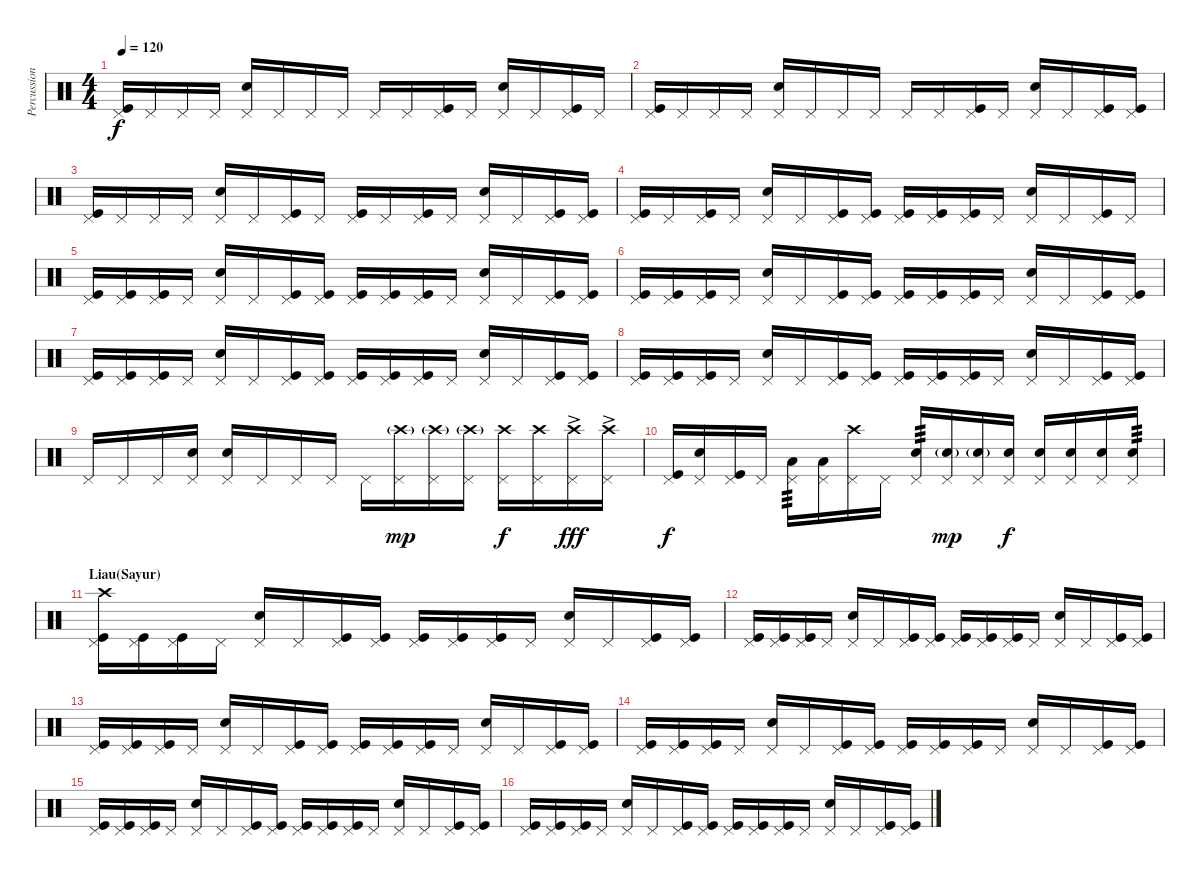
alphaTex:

\track ("Percussion" "Percussion") {instrument percussion}
\staff {score}
\articulation defaults
\ts (4 4)
\tempo 120
\clef neutral
\ks c
("Kick (hit)" "Pedal Hi-Hat (hit)").16{dy f} "Pedal Hi-Hat (hit)".16 "Pedal Hi-Hat (hit)".16 "Pedal Hi-Hat (hit)".16 ("Snare (hit) 2" "Pedal Hi-Hat (hit)").16 "Pedal Hi-Hat (hit)".16 "Pedal Hi-Hat (hit)".16 "Pedal Hi-Hat (hit)".16 "Pedal Hi-Hat (hit)".16 "Pedal Hi-Hat (hit)".16 ("Kick (hit)" "Pedal Hi-Hat (hit)").16 "Pedal Hi-Hat (hit)".16 ("Snare (hit) 2" "Pedal Hi-Hat (hit)").16 "Pedal Hi-Hat (hit)".16 ("Kick (hit)" "Pedal Hi-Hat (hit)").16 "Pedal Hi-Hat (hit)".16 |
("Kick (hit)" "Pedal Hi-Hat (hit)").16 "Pedal Hi-Hat (hit)".16 "Pedal Hi-Hat (hit)".16 "Pedal Hi-Hat (hit)".16 ("Snare (hit) 2" "Pedal Hi-Hat (hit)").16 "Pedal Hi-Hat (hit)".16 "Pedal Hi-Hat (hit)".16 "Pedal Hi-Hat (hit)".16 "Pedal Hi-Hat (hit)".16 "Pedal Hi-Hat (hit)".16 ("Kick (hit)" "Pedal Hi-Hat (hit)").16 "Pedal Hi-Hat (hit)".16 ("Snare (hit) 2" "Pedal Hi-Hat (hit)").16 "Pedal Hi-Hat (hit)".16 ("Kick (hit)" "Pedal Hi-Hat (hit)").16 ("Kick (hit)" "Pedal Hi-Hat (hit)").16 |
("Kick (hit)" "Pedal Hi-Hat (hit)").16 "Pedal Hi-Hat (hit)".16 "Pedal Hi-Hat (hit)".16 "Pedal Hi-Hat (hit)".16 ("Snare (hit) 2" "Pedal Hi-Hat (hit)").16 "Pedal Hi-Hat (hit)".16 ("Kick (hit)" "Pedal Hi-Hat (hit)").16 "Pedal Hi-Hat (hit)".16 ("Kick (hit)" "Pedal Hi-Hat (hit)").16 "Pedal Hi-Hat (hit)".16 ("Kick (hit)" "Pedal Hi-Hat (hit)").16 "Pedal Hi-Hat (hit)".16 ("Snare (hit) 2" "Pedal Hi-Hat (hit)").16 "Pedal Hi-Hat (hit)".16 ("Kick (hit)" "Pedal Hi-Hat (hit)").16 ("Kick (hit)" "Pedal Hi-Hat (hit)").16 |
("Kick (hit)" "Pedal Hi-Hat (hit)").16 "Pedal Hi-Hat (hit)".16 ("Kick (hit)" "Pedal Hi-Hat (hit)").16 "Pedal Hi-Hat (hit)".16 ("Snare (hit) 2" "Pedal Hi-Hat (hit)").16 "Pedal Hi-Hat (hit)".16 ("Kick (hit)" "Pedal Hi-Hat (hit)").16 ("Kick (hit)" "Pedal Hi-Hat (hit)").16 ("Kick (hit)" "Pedal Hi-Hat (hit)").16 ("Kick (hit)" "Pedal Hi-Hat (hit)").16 ("Kick (hit)" "Pedal Hi-Hat (hit)").16 "Pedal Hi-Hat (hit)".16 ("Snare (hit) 2" "Pedal Hi-Hat (hit)").16 "Pedal Hi-Hat (hit)".16 ("Kick (hit)" "Pedal Hi-Hat (hit)").16 "Pedal Hi-Hat (hit)".16 |
("Kick (hit)" "Pedal Hi-Hat (hit)").16 ("Kick (hit)" "Pedal Hi-Hat (hit)").16 ("Kick (hit)" "Pedal Hi-Hat (hit)").16 "Pedal Hi-Hat (hit)".16 ("Snare (hit) 2" "Pedal Hi-Hat (hit)").16 "Pedal Hi-Hat (hit)".16 ("Kick (hit)" "Pedal Hi-Hat (hit)").16 ("Kick (hit)" "Pedal Hi-Hat (hit)").16 ("Kick (hit)" "Pedal Hi-Hat (hit)").16 ("Kick (hit)" "Pedal Hi-Hat (hit)").16 ("Kick (hit)" "Pedal Hi-Hat (hit)").16 "Pedal Hi-Hat (hit)".16 ("Snare (hit) 2" "Pedal Hi-Hat (hit)").16 "Pedal Hi-Hat (hit)".16 ("Kick (hit)" "Pedal Hi-Hat (hit)").16 ("Kick (hit)" "Pedal Hi-Hat (hit)").16 |
("Kick (hit)" "Pedal Hi-Hat (hit)").16 ("Kick (hit)" "Pedal Hi-Hat (hit)").16 ("Kick (hit)" "Pedal Hi-Hat (hit)").16 "Pedal Hi-Hat (hit)".16 ("Snare (hit) 2" "Pedal Hi-Hat (hit)").16 "Pedal Hi-Hat (hit)".16 ("Kick (hit)" "Pedal Hi-Hat (hit)").16 ("Kick (hit)" "Pedal Hi-Hat (hit)").16 ("Kick (hit)" "Pedal Hi-Hat (hit)").16 ("Kick (hit)" "Pedal Hi-Hat (hit)").16 ("Kick (hit)" "Pedal Hi-Hat (hit)").16 "Pedal Hi-Hat (hit)".16 ("Snare (hit) 2" "Pedal Hi-Hat (hit)").16 "Pedal Hi-Hat (hit)".16 ("Kick (hit)" "Pedal Hi-Hat (hit)").16 ("Kick (hit)" "Pedal Hi-Hat (hit)").16 |
("Kick (hit)" "Pedal Hi-Hat (hit)").16 ("Kick (hit)" "Pedal Hi-Hat (hit)").16 ("Kick (hit)" "Pedal Hi-Hat (hit)").16 "Pedal Hi-Hat (hit)".16 ("Snare (hit) 2" "Pedal Hi-Hat (hit)").16 "Pedal Hi-Hat (hit)".16 ("Kick (hit)" "Pedal Hi-Hat (hit)").16 ("Kick (hit)" "Pedal Hi-Hat (hit)").16 ("Kick (hit)" "Pedal Hi-Hat (hit)").16 ("Kick (hit)" "Pedal Hi-Hat (hit)").16 ("Kick (hit)" "Pedal Hi-Hat (hit)").16 "Pedal Hi-Hat (hit)".16 ("Snare (hit) 2" "Pedal Hi-Hat (hit)").16 "Pedal Hi-Hat (hit)".16 ("Kick (hit)" "Pedal Hi-Hat (hit)").16 ("Kick (hit)" "Pedal Hi-Hat (hit)").16 |
("Kick (hit)" "Pedal Hi-Hat (hit)").16 ("Kick (hit)" "Pedal Hi-Hat (hit)").16 ("Kick (hit)" "Pedal Hi-Hat (hit)").16 "Pedal Hi-Hat (hit)".16 ("Snare (hit) 2" "Pedal Hi-Hat (hit)").16 "Pedal Hi-Hat (hit)".16 ("Kick (hit)" "Pedal Hi-Hat (hit)").16 ("Kick (hit)" "Pedal Hi-Hat (hit)").16 ("Kick (hit)" "Pedal Hi-Hat (hit)").16 ("Kick (hit)" "Pedal Hi-Hat (hit)").16 ("Kick (hit)" "Pedal Hi-Hat (hit)").16 "Pedal Hi-Hat (hit)".16 ("Snare (hit) 2" "Pedal Hi-Hat (hit)").16 "Pedal Hi-Hat (hit)".16 ("Kick (hit)" "Pedal Hi-Hat (hit)").16 ("Kick (hit)" "Pedal Hi-Hat (hit)").16 |
"Pedal Hi-Hat (hit)".16 "Pedal Hi-Hat (hit)".16 "Pedal Hi-Hat (hit)".16 ("Snare (hit) 2" "Pedal Hi-Hat (hit)").16 ("Snare (hit) 2" "Pedal Hi-Hat (hit)").16 "Pedal Hi-Hat (hit)".16 "Pedal Hi-Hat (hit)".16 "Pedal Hi-Hat (hit)".16 "Pedal Hi-Hat (hit)".16 ("Crash high (hit)"{g} "Pedal Hi-Hat (hit)").16{dy mp} ("Crash high (hit)"{g} "Pedal Hi-Hat (hit)").16 ("Crash high (hit)"{g} "Pedal Hi-Hat (hit)").16 ("Crash high (hit)" "Pedal Hi-Hat (hit)").16{dy f} ("Crash high (hit)" "Pedal Hi-Hat (hit)").16 ("Crash high (hit)"{ac} "Pedal Hi-Hat (hit)").16{dy fff} ("Crash high (hit)"{ac} "Pedal Hi-Hat (hit)").16 |
("Kick (hit)" "Pedal Hi-Hat (hit)").16{dy f} ("Snare (hit) 2" "Pedal Hi-Hat (hit)").16 ("Kick (hit)" "Pedal Hi-Hat (hit)").16 "Pedal Hi-Hat (hit)".16 ("Low Floor Tom (hit)" "Pedal Hi-Hat (hit)").16{tp 3} ("Low Tom (hit)" "Pedal Hi-Hat (hit)").16 ("Crash high (hit)" "Pedal Hi-Hat (hit)").16 "Pedal Hi-Hat (hit)".16 ("Snare (hit) 2" "Pedal Hi-Hat (hit)").16{tp 3} ("Snare (hit) 2"{g} "Pedal Hi-Hat (hit)").16{dy mp} ("Snare (hit) 2"{g} "Pedal Hi-Hat (hit)").16 ("Snare (hit) 2" "Pedal Hi-Hat (hit)").16{dy f} ("Snare (hit) 2" "Pedal Hi-Hat (hit)").16 ("Snare (hit) 2" "Pedal Hi-Hat (hit)").16 ("Snare (hit) 2" "Pedal Hi-Hat (hit)").16 ("Snare (hit) 2" "Pedal Hi-Hat (hit)").16{tp 3} |
\section ("" "Liau(Sayur)")
("Kick (hit)" "Pedal Hi-Hat (hit)" "Crash high (hit)").16 ("Kick (hit)" "Pedal Hi-Hat (hit)").16 ("Kick (hit)" "Pedal Hi-Hat (hit)").16 "Pedal Hi-Hat (hit)".16 ("Snare (hit) 2" "Pedal Hi-Hat (hit)").16 "Pedal Hi-Hat (hit)".16 ("Kick (hit)" "Pedal Hi-Hat (hit)").16 ("Kick (hit)" "Pedal Hi-Hat (hit)").16 ("Kick (hit)" "Pedal Hi-Hat (hit)").16 ("Kick (hit)" "Pedal Hi-Hat (hit)").16 ("Kick (hit)" "Pedal Hi-Hat (hit)").16 "Pedal Hi-Hat (hit)".16 ("Snare (hit) 2" "Pedal Hi-Hat (hit)").16 "Pedal Hi-Hat (hit)".16 ("Kick (hit)" "Pedal Hi-Hat (hit)").16 ("Kick (hit)" "Pedal Hi-Hat (hit)").16 |
("Kick (hit)" "Pedal Hi-Hat (hit)").16 ("Kick (hit)" "Pedal Hi-Hat (hit)").16 ("Kick (hit)" "Pedal Hi-Hat (hit)").16 "Pedal Hi-Hat (hit)".16 ("Snare (hit) 2" "Pedal Hi-Hat (hit)").16 "Pedal Hi-Hat (hit)".16 ("Kick (hit)" "Pedal Hi-Hat (hit)").16 ("Kick (hit)" "Pedal Hi-Hat (hit)").16 ("Kick (hit)" "Pedal Hi-Hat (hit)").16 ("Kick (hit)" "Pedal Hi-Hat (hit)").16 ("Kick (hit)" "Pedal Hi-Hat (hit)").16 "Pedal Hi-Hat (hit)".16 ("Snare (hit) 2" "Pedal Hi-Hat (hit)").16 "Pedal Hi-Hat (hit)".16 ("Kick (hit)" "Pedal Hi-Hat (hit)").16 ("Kick (hit)" "Pedal Hi-Hat (hit)").16 |
("Kick (hit)" "Pedal Hi-Hat (hit)").16 ("Kick (hit)" "Pedal Hi-Hat (hit)").16 ("Kick (hit)" "Pedal Hi-Hat (hit)").16 "Pedal Hi-Hat (hit)".16 ("Snare (hit) 2" "Pedal Hi-Hat (hit)").16 "Pedal Hi-Hat (hit)".16 ("Kick (hit)" "Pedal Hi-Hat (hit)").16 ("Kick (hit)" "Pedal Hi-Hat (hit)").16 ("Kick (hit)" "Pedal Hi-Hat (hit)").16 ("Kick (hit)" "Pedal Hi-Hat (hit)").16 ("Kick (hit)" "Pedal Hi-Hat (hit)").16 "Pedal Hi-Hat (hit)".16 ("Snare (hit) 2" "Pedal Hi-Hat (hit)").16 "Pedal Hi-Hat (hit)".16 ("Kick (hit)" "Pedal Hi-Hat (hit)").16 ("Kick (hit)" "Pedal Hi-Hat (hit)").16 |
("Kick (hit)" "Pedal Hi-Hat (hit)").16 ("Kick (hit)" "Pedal Hi-Hat (hit)").16 ("Kick (hit)" "Pedal Hi-Hat (hit)").16 "Pedal Hi-Hat (hit)".16 ("Snare (hit) 2" "Pedal Hi-Hat (hit)").16 "Pedal Hi-Hat (hit)".16 ("Kick (hit)" "Pedal Hi-Hat (hit)").16 ("Kick (hit)" "Pedal Hi-Hat (hit)").16 ("Kick (hit)" "Pedal Hi-Hat (hit)").16 ("Kick (hit)" "Pedal Hi-Hat (hit)").16 ("Kick (hit)" "Pedal Hi-Hat (hit)").16 "Pedal Hi-Hat (hit)".16 ("Snare (hit) 2" "Pedal Hi-Hat (hit)").16 "Pedal Hi-Hat (hit)".16 ("Kick (hit)" "Pedal Hi-Hat (hit)").16 ("Kick (hit)" "Pedal Hi-Hat (hit)").16 |
("Kick (hit)" "Pedal Hi-Hat (hit)").16 ("Kick (hit)" "Pedal Hi-Hat (hit)").16 ("Kick (hit)" "Pedal Hi-Hat (hit)").16 "Pedal Hi-Hat (hit)".16 ("Snare (hit) 2" "Pedal Hi-Hat (hit)").16 "Pedal Hi-Hat (hit)".16 ("Kick (hit)" "Pedal Hi-Hat (hit)").16 ("Kick (hit)" "Pedal Hi-Hat (hit)").16 ("Kick (hit)" "Pedal Hi-Hat (hit)").16 ("Kick (hit)" "Pedal Hi-Hat (hit)").16 ("Kick (hit)" "Pedal Hi-Hat (hit)").16 "Pedal Hi-Hat (hit)".16 ("Snare (hit) 2" "Pedal Hi-Hat (hit)").16 "Pedal Hi-Hat (hit)".16 ("Kick (hit)" "Pedal Hi-Hat (hit)").16 ("Kick (hit)" "Pedal Hi-Hat (hit)").16 |
("Kick (hit)" "Pedal Hi-Hat (hit)").16 ("Kick (hit)" "Pedal Hi-Hat (hit)").16 ("Kick (hit)" "Pedal Hi-Hat (hit)").16 "Pedal Hi-Hat (hit)".16 ("Snare (hit) 2" "Pedal Hi-Hat (hit)").16 "Pedal Hi-Hat (hit)".16 ("Kick (hit)" "Pedal Hi-Hat (hit)").16 ("Kick (hit)" "Pedal Hi-Hat (hit)").16 ("Kick (hit)" "Pedal Hi-Hat (hit)").16 ("Kick (hit)" "Pedal Hi-Hat (hit)").16 ("Kick (hit)" "Pedal Hi-Hat (hit)").16 "Pedal Hi-Hat (hit)".16 ("Snare (hit) 2" "Pedal Hi-Hat (hit)").16 "Pedal Hi-Hat (hit)".16 ("Kick (hit)" "Pedal Hi-Hat (hit)").16 ("Kick (hit)" "Pedal Hi-Hat (hit)").16
